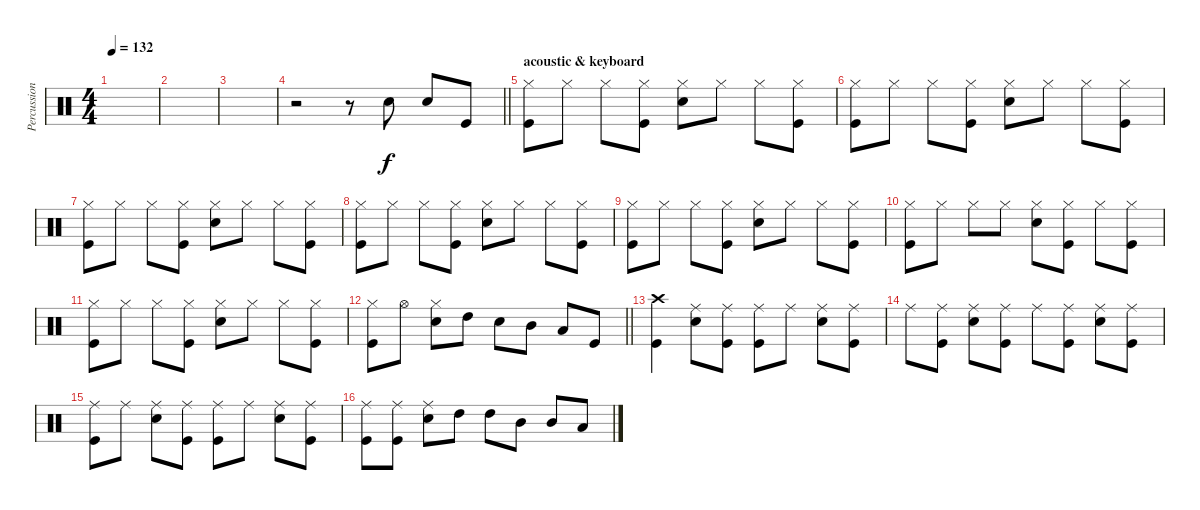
\track ("Percussion" "Percussion") {instrument percussion}
\staff {score}
\articulation defaults
\ts (4 4)
\tempo 132
\clef neutral
\ks c
|
|
|
\barLineRight lightlight
r.2{volume 13} r.8 "Snare (hit) 2".8 "Snare (hit) 2".8 "Kick (hit)".8 |
\section ("" "acoustic & keyboard")
("Hi-Hat (closed)" "Kick (hit)").8 "Hi-Hat (closed)".8 "Hi-Hat (closed)".8 ("Hi-Hat (closed)" "Kick (hit)").8 ("Hi-Hat (closed)" "Snare (hit) 2").8 "Hi-Hat (closed)".8 "Hi-Hat (closed)".8 ("Hi-Hat (closed)" "Kick (hit)").8 |
("Hi-Hat (closed)" "Kick (hit)").8 "Hi-Hat (closed)".8 "Hi-Hat (closed)".8 ("Hi-Hat (closed)" "Kick (hit)").8 ("Hi-Hat (closed)" "Snare (hit) 2").8 "Hi-Hat (closed)".8 "Hi-Hat (closed)".8 ("Hi-Hat (closed)" "Kick (hit)").8 |
("Hi-Hat (closed)" "Kick (hit)").8 "Hi-Hat (closed)".8 "Hi-Hat (closed)".8 ("Hi-Hat (closed)" "Kick (hit)").8 ("Hi-Hat (closed)" "Snare (hit) 2").8 "Hi-Hat (closed)".8 "Hi-Hat (closed)".8 ("Hi-Hat (closed)" "Kick (hit)").8 |
("Hi-Hat (closed)" "Kick (hit)").8 "Hi-Hat (closed)".8 "Hi-Hat (closed)".8 ("Hi-Hat (closed)" "Kick (hit)").8 ("Hi-Hat (closed)" "Snare (hit) 2").8 "Hi-Hat (closed)".8 "Hi-Hat (closed)".8 ("Hi-Hat (closed)" "Kick (hit)").8 |
("Hi-Hat (closed)" "Kick (hit)").8 "Hi-Hat (closed)".8 "Hi-Hat (closed)".8 ("Hi-Hat (closed)" "Kick (hit)").8 ("Hi-Hat (closed)" "Snare (hit) 2").8 "Hi-Hat (closed)".8 "Hi-Hat (closed)".8 ("Hi-Hat (closed)" "Kick (hit)").8 |
("Hi-Hat (closed)" "Kick (hit)").8 "Hi-Hat (closed)".8 "Hi-Hat (closed)".8 "Hi-Hat (closed)".8 ("Hi-Hat (closed)" "Snare (hit) 2").8 ("Hi-Hat (closed)" "Kick (hit)").8 "Hi-Hat (closed)".8 ("Hi-Hat (closed)" "Kick (hit)").8 |
("Hi-Hat (closed)" "Kick (hit)").8 "Hi-Hat (closed)".8 "Hi-Hat (closed)".8 ("Hi-Hat (closed)" "Kick (hit)").8 ("Hi-Hat (closed)" "Snare (hit) 2").8 "Hi-Hat (closed)".8 "Hi-Hat (closed)".8 ("Hi-Hat (closed)" "Kick (hit)").8 |
\barLineRight lightlight
("Hi-Hat (closed)" "Kick (hit)").8 "Hi-Hat (open)".8 ("Hi-Hat (closed)" "Snare (hit) 2").8 "High Tom (hit)".8 "Snare (hit) 2".8 "Mid Tom (hit)".8 "Low Tom (hit)".8 "Kick (hit)".8 |
("Crash high (hit)" "Kick (hit)").4 ("Snare (hit) 2" "Ride (middle)").8 ("Kick (hit)" "Ride (middle)").8 ("Kick (hit)" "Ride (middle)").8 "Ride (middle)".8 ("Snare (hit) 2" "Ride (middle)").8 ("Kick (hit)" "Ride (middle)").8 |
"Ride (middle)".8 ("Ride (middle)" "Kick (hit)").8 ("Ride (middle)" "Snare (hit) 2").8 ("Ride (middle)" "Kick (hit)").8 "Ride (middle)".8 ("Ride (middle)" "Kick (hit)").8 ("Ride (middle)" "Snare (hit) 2").8 ("Ride (middle)" "Kick (hit)").8 |
("Ride (middle)" "Kick (hit)").8 "Ride (middle)".8 ("Ride (middle)" "Snare (hit) 2").8 ("Ride (middle)" "Kick (hit)").8 ("Ride (middle)" "Kick (hit)").8 "Ride (middle)".8 ("Ride (middle)" "Snare (hit) 2").8 ("Ride (middle)" "Kick (hit)").8 |
("Ride (middle)" "Kick (hit)").8 ("Ride (middle)" "Kick (hit)").8 ("Ride (middle)" "Snare (hit) 2").8 "High Tom (hit)".8 "High Tom (hit)".8 "Mid Tom (hit)".8 "Mid Tom (hit)".8 "Low Tom (hit)".8
